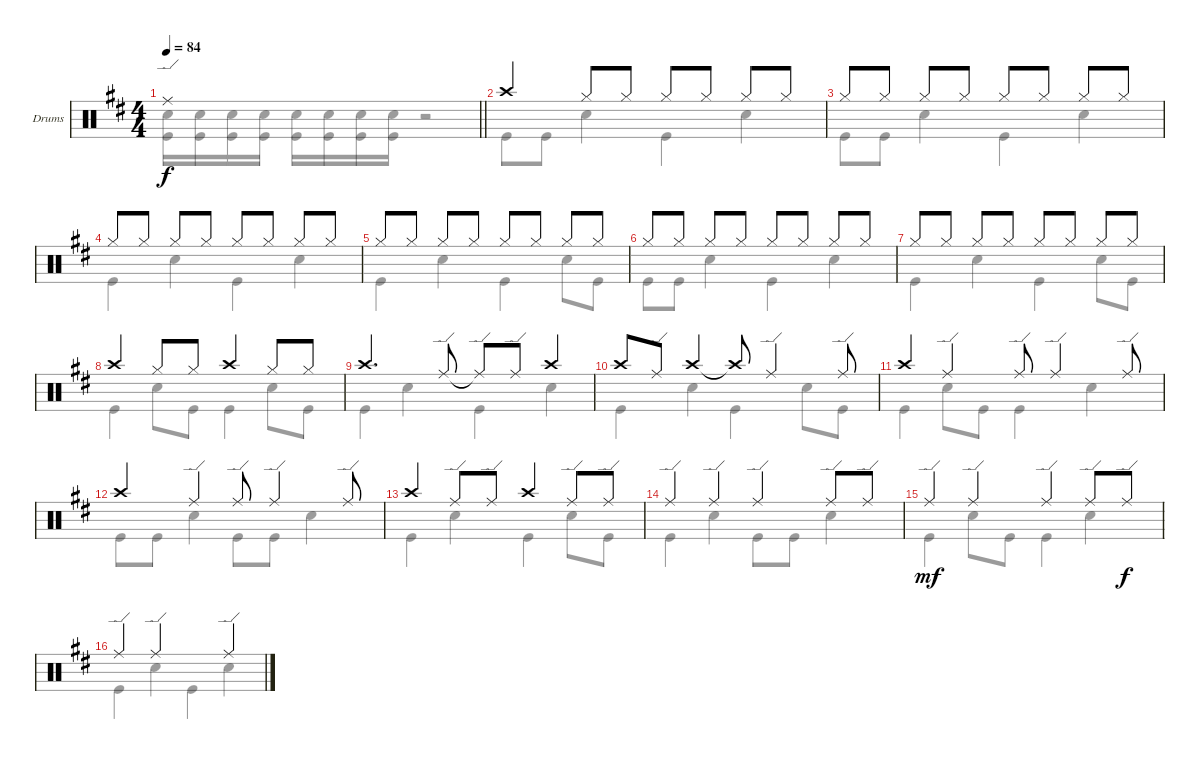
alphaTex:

\defaultSystemsLayout 4
\bracketExtendMode groupsimilarinstruments
\firstSystemTrackNameOrientation horizontal
\otherSystemsTrackNameOrientation horizontal
\track ("Drumkit" "Drums") {multiBarRest instrument percussion}
\staff {score}
\articulation defaults
\voice
\ts (4 4)
\tempo 84
\clef neutral
\barLineRight lightlight
\ks bminor "Ride (edge)"{t}.1{dy f}
|
"Crash high (hit)".4 "Hi-Hat (closed)".8 "Hi-Hat (closed)".8 "Hi-Hat (closed)".8 "Hi-Hat (closed)".8 "Hi-Hat (closed)".8 "Hi-Hat (closed)".8 |
"Hi-Hat (closed)".8 "Hi-Hat (closed)".8 "Hi-Hat (closed)".8 "Hi-Hat (closed)".8 "Hi-Hat (closed)".8 "Hi-Hat (closed)".8 "Hi-Hat (closed)".8 "Hi-Hat (closed)".8 |
"Hi-Hat (closed)".8 "Hi-Hat (closed)".8 "Hi-Hat (closed)".8 "Hi-Hat (closed)".8 "Hi-Hat (closed)".8 "Hi-Hat (closed)".8 "Hi-Hat (closed)".8 "Hi-Hat (closed)".8 |
"Hi-Hat (closed)".8 "Hi-Hat (closed)".8 "Hi-Hat (closed)".8 "Hi-Hat (closed)".8 "Hi-Hat (closed)".8 "Hi-Hat (closed)".8 "Hi-Hat (closed)".8 "Hi-Hat (closed)".8 |
"Hi-Hat (closed)".8 "Hi-Hat (closed)".8 "Hi-Hat (closed)".8 "Hi-Hat (closed)".8 "Hi-Hat (closed)".8 "Hi-Hat (closed)".8 "Hi-Hat (closed)".8 "Hi-Hat (closed)".8 |
"Hi-Hat (closed)".8 "Hi-Hat (closed)".8 "Hi-Hat (closed)".8 "Hi-Hat (closed)".8 "Hi-Hat (closed)".8 "Hi-Hat (closed)".8 "Hi-Hat (closed)".8 "Hi-Hat (closed)".8 |
"Crash high (hit)".4 "Hi-Hat (closed)".8 "Hi-Hat (closed)".8 "Crash high (hit)".4 "Hi-Hat (closed)".8 "Hi-Hat (closed)".8 |
"Crash high (hit)".4{d} "Ride (edge)".8 "Ride (edge)"{t}.8 "Ride (edge)".8 "Crash high (hit)".4 |
"Crash high (hit)".8 "Ride (edge)".8 "Crash high (hit)".4 "Crash high (hit)"{t}.8 "Ride (edge)".4 "Ride (edge)".8 |
"Crash high (hit)".4 "Ride (edge)".4 "Ride (edge)".8 "Ride (edge)".4 "Ride (edge)".8 |
"Crash high (hit)".4 "Ride (edge)".4 "Ride (edge)".8 "Ride (edge)".4 "Ride (edge)".8 |
"Crash high (hit)".4 "Ride (edge)".8 "Ride (edge)".8 "Crash high (hit)".4 "Ride (edge)".8 "Ride (edge)".8 |
"Ride (edge)".4 "Ride (edge)".4 "Ride (edge)".4 "Ride (edge)".8 "Ride (edge)".8 |
"Ride (edge)".4{dy mf} "Ride (edge)".4 "Ride (edge)".4 "Ride (edge)".8 "Ride (edge)".8{dy f} |
"Ride (edge)".4 "Ride (edge)".2 "Ride (edge)".4
\voice
\clef neutral
\ottava regular
\simile none
\barLineRight lightlight
\ks bminor
("Kick (hit)" "Snare (hit) 2").16{dy f} ("Kick (hit)" "Snare (hit) 2").16 ("Kick (hit)" "Snare (hit) 2").16 ("Kick (hit)" "Snare (hit) 2").16 ("Kick (hit)" "Snare (hit) 2").16 ("Kick (hit)" "Snare (hit) 2").16 ("Kick (hit)" "Snare (hit) 2").16 ("Kick (hit)" "Snare (hit) 2").16 r.2 |
"Kick (hit)".8 "Kick (hit)".8 "Snare (hit) 2".4 "Kick (hit)".4 "Snare (hit) 2".4 |
"Kick (hit)".8 "Kick (hit)".8 "Snare (hit) 2".4 "Kick (hit)".4 "Snare (hit) 2".4 |
"Kick (hit)".4 "Snare (hit) 2".4 "Kick (hit)".4 "Snare (hit) 2".4 |
"Kick (hit)".4 "Snare (hit) 2".4 "Kick (hit)".4 "Snare (hit) 2".8 "Kick (hit)".8 |
"Kick (hit)".8 "Kick (hit)".8 "Snare (hit) 2".4 "Kick (hit)".4 "Snare (hit) 2".4 |
"Kick (hit)".4 "Snare (hit) 2".4 "Kick (hit)".4 "Snare (hit) 2".8 "Kick (hit)".8 |
"Kick (hit)".4 "Snare (hit) 2".8 "Kick (hit)".8 "Kick (hit)".4 "Snare (hit) 2".8 "Kick (hit)".8 |
"Kick (hit)".4 "Snare (hit) 2".4 "Kick (hit)".4 "Snare (hit) 2".4 |
"Kick (hit)".4 "Snare (hit) 2".4 "Kick (hit)".4 "Snare (hit) 2".8 "Kick (hit)".8 |
"Kick (hit)".4 "Snare (hit) 2".8 "Kick (hit)".8 "Kick (hit)".4 "Snare (hit) 2".4 |
"Kick (hit)".8 "Kick (hit)".8 "Snare (hit) 2".4 "Kick (hit)".8 "Kick (hit)".8 "Snare (hit) 2".4 |
"Kick (hit)".4 "Snare (hit) 2".4 "Kick (hit)".4 "Snare (hit) 2".8 "Kick (hit)".8 |
"Kick (hit)".4 "Snare (hit) 2".4 "Kick (hit)".8 "Kick (hit)".8 "Snare (hit) 2".4 |
"Kick (hit)".4 "Snare (hit) 2".8 "Kick (hit)".8 "Kick (hit)".4 "Snare (hit) 2".4 |
"Kick (hit)".4 "Snare (hit) 2".4 "Kick (hit)".4 "Snare (hit) 2".4
